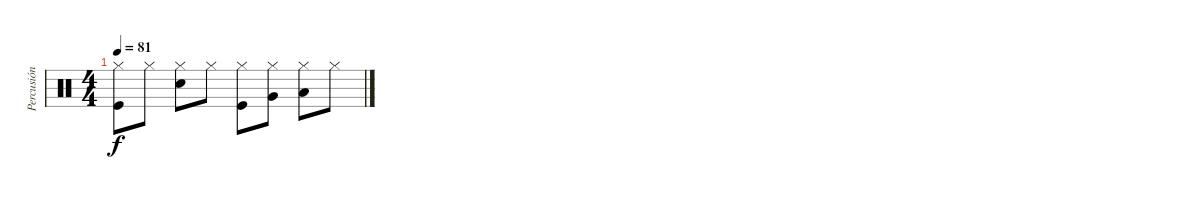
\track ("Percusión" "Percusión") {instrument percussion}
\staff {score}
\articulation defaults
\ts (4 4)
\tempo 81
\clef neutral
\ks c
("Hi-Hat (closed)" "Kick (hit)").8{dy f} "Hi-Hat (closed)".8 ("Hi-Hat (closed)" "Electric Snare (hit)").8 "Hi-Hat (closed)".8 ("Hi-Hat (closed)" "Kick (hit)").8 ("Hi-Hat (closed)" "Very Low Tom (hit)").8 ("Hi-Hat (closed)" "Low Tom (hit)").8 "Hi-Hat (closed)".8
